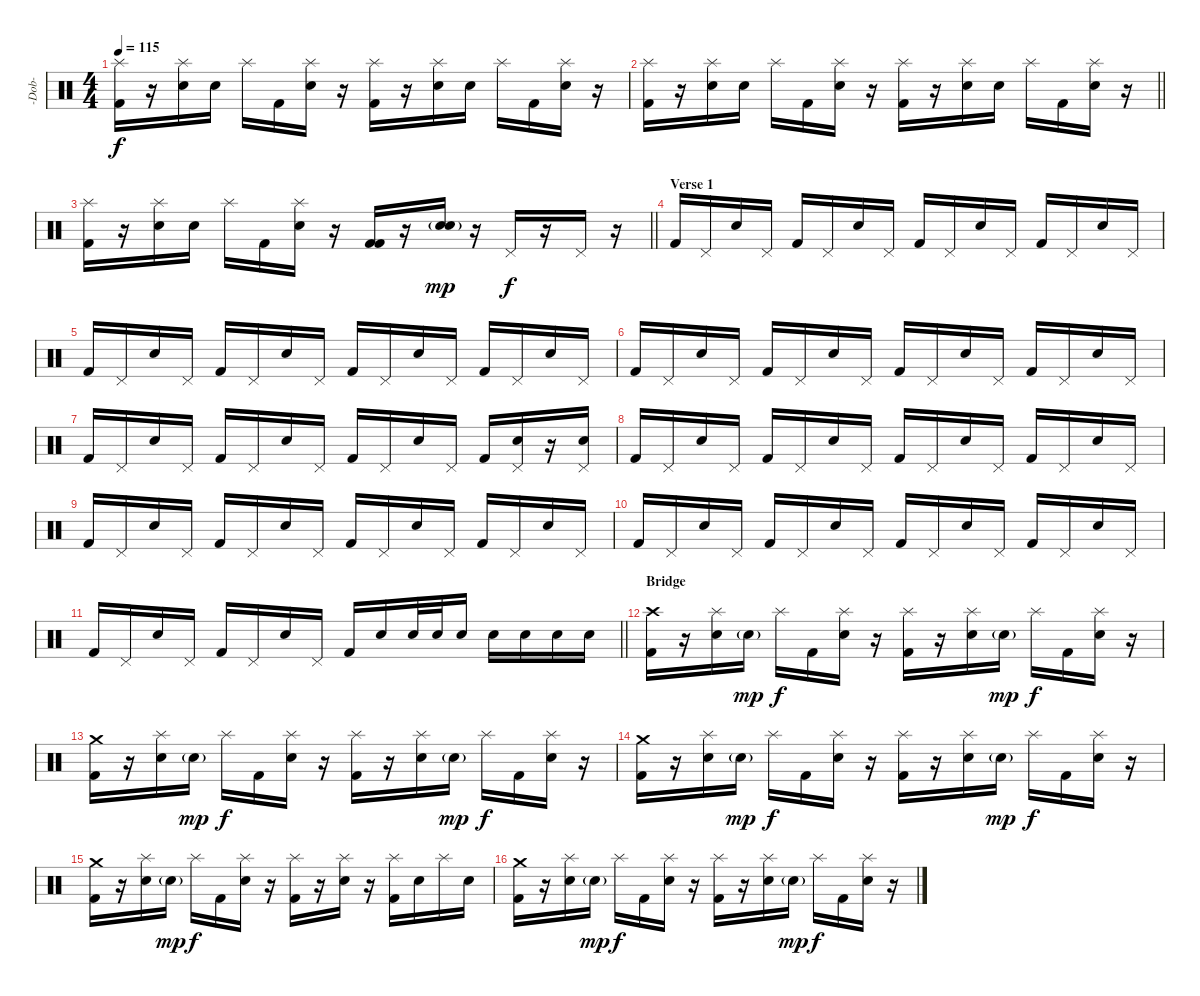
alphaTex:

\track ("-Dob-" "-Dob-") {instrument percussion}
\staff {score}
\articulation defaults
\ts (4 4)
\tempo 115
\clef neutral
\ks c
("Splash (hit)" "Kick (hit) 2").16{dy f} r.16 ("Splash (hit)" "Snare (hit) 2").16 "Snare (hit) 2".16 "Splash (hit)".16 "Kick (hit) 2".16 ("Splash (hit)" "Snare (hit) 2").16 r.16 ("Splash (hit)" "Kick (hit) 2").16 r.16 ("Splash (hit)" "Snare (hit) 2").16 "Snare (hit) 2".16 "Splash (hit)".16 "Kick (hit) 2".16 ("Splash (hit)" "Snare (hit) 2").16 r.16 |
\barLineRight lightlight
("Splash (hit)" "Kick (hit) 2").16 r.16 ("Splash (hit)" "Snare (hit) 2").16 "Snare (hit) 2".16 "Splash (hit)".16 "Kick (hit) 2".16 ("Splash (hit)" "Snare (hit) 2").16 r.16 ("Splash (hit)" "Kick (hit) 2").16 r.16 ("Splash (hit)" "Snare (hit) 2").16 "Snare (hit) 2".16 "Splash (hit)".16 "Kick (hit) 2".16 ("Splash (hit)" "Snare (hit) 2").16 r.16 |
\barLineRight lightlight
("Splash (hit)" "Kick (hit) 2").16 r.16 ("Splash (hit)" "Snare (hit) 2").16 "Snare (hit) 2".16 "Splash (hit)".16 "Kick (hit) 2".16 ("Splash (hit)" "Snare (hit) 2").16 r.16 ("Kick (hit) 2" "Kick (hit) 2").16 r.16 ("Snare (hit) 2" "Snare (hit) 2"{g}).16{dy mp} r.16 "Pedal Hi-Hat (hit)".16{dy f} r.16 "Pedal Hi-Hat (hit)".16 r.16 |
\section ("" "Verse 1")
"Kick (hit) 2".16 "Pedal Hi-Hat (hit)".16 "Snare (hit) 2".16 "Pedal Hi-Hat (hit)".16 "Kick (hit) 2".16 "Pedal Hi-Hat (hit)".16 "Snare (hit) 2".16 "Pedal Hi-Hat (hit)".16 "Kick (hit) 2".16 "Pedal Hi-Hat (hit)".16 "Snare (hit) 2".16 "Pedal Hi-Hat (hit)".16 "Kick (hit) 2".16 "Pedal Hi-Hat (hit)".16 "Snare (hit) 2".16 "Pedal Hi-Hat (hit)".16 |
"Kick (hit) 2".16 "Pedal Hi-Hat (hit)".16 "Snare (hit) 2".16 "Pedal Hi-Hat (hit)".16 "Kick (hit) 2".16 "Pedal Hi-Hat (hit)".16 "Snare (hit) 2".16 "Pedal Hi-Hat (hit)".16 "Kick (hit) 2".16 "Pedal Hi-Hat (hit)".16 "Snare (hit) 2".16 "Pedal Hi-Hat (hit)".16 "Kick (hit) 2".16 "Pedal Hi-Hat (hit)".16 "Snare (hit) 2".16 "Pedal Hi-Hat (hit)".16 |
"Kick (hit) 2".16 "Pedal Hi-Hat (hit)".16 "Snare (hit) 2".16 "Pedal Hi-Hat (hit)".16 "Kick (hit) 2".16 "Pedal Hi-Hat (hit)".16 "Snare (hit) 2".16 "Pedal Hi-Hat (hit)".16 "Kick (hit) 2".16 "Pedal Hi-Hat (hit)".16 "Snare (hit) 2".16 "Pedal Hi-Hat (hit)".16 "Kick (hit) 2".16 "Pedal Hi-Hat (hit)".16 "Snare (hit) 2".16 "Pedal Hi-Hat (hit)".16 |
"Kick (hit) 2".16 "Pedal Hi-Hat (hit)".16 "Snare (hit) 2".16 "Pedal Hi-Hat (hit)".16 "Kick (hit) 2".16 "Pedal Hi-Hat (hit)".16 "Snare (hit) 2".16 "Pedal Hi-Hat (hit)".16 "Kick (hit) 2".16 "Pedal Hi-Hat (hit)".16 "Snare (hit) 2".16 "Pedal Hi-Hat (hit)".16 "Kick (hit) 2".16 ("Pedal Hi-Hat (hit)" "Snare (hit) 2").16 r.16 ("Pedal Hi-Hat (hit)" "Snare (hit) 2").16 |
"Kick (hit) 2".16 "Pedal Hi-Hat (hit)".16 "Snare (hit) 2".16 "Pedal Hi-Hat (hit)".16 "Kick (hit) 2".16 "Pedal Hi-Hat (hit)".16 "Snare (hit) 2".16 "Pedal Hi-Hat (hit)".16 "Kick (hit) 2".16 "Pedal Hi-Hat (hit)".16 "Snare (hit) 2".16 "Pedal Hi-Hat (hit)".16 "Kick (hit) 2".16 "Pedal Hi-Hat (hit)".16 "Snare (hit) 2".16 "Pedal Hi-Hat (hit)".16 |
"Kick (hit) 2".16 "Pedal Hi-Hat (hit)".16 "Snare (hit) 2".16 "Pedal Hi-Hat (hit)".16 "Kick (hit) 2".16 "Pedal Hi-Hat (hit)".16 "Snare (hit) 2".16 "Pedal Hi-Hat (hit)".16 "Kick (hit) 2".16 "Pedal Hi-Hat (hit)".16 "Snare (hit) 2".16 "Pedal Hi-Hat (hit)".16 "Kick (hit) 2".16 "Pedal Hi-Hat (hit)".16 "Snare (hit) 2".16 "Pedal Hi-Hat (hit)".16 |
"Kick (hit) 2".16 "Pedal Hi-Hat (hit)".16 "Snare (hit) 2".16 "Pedal Hi-Hat (hit)".16 "Kick (hit) 2".16 "Pedal Hi-Hat (hit)".16 "Snare (hit) 2".16 "Pedal Hi-Hat (hit)".16 "Kick (hit) 2".16 "Pedal Hi-Hat (hit)".16 "Snare (hit) 2".16 "Pedal Hi-Hat (hit)".16 "Kick (hit) 2".16 "Pedal Hi-Hat (hit)".16 "Snare (hit) 2".16 "Pedal Hi-Hat (hit)".16 |
\barLineRight lightlight "Kick (hit) 2".16 "Pedal Hi-Hat (hit)".16 "Snare (hit) 2".16 "Pedal Hi-Hat (hit)".16 "Kick (hit) 2".16 "Pedal Hi-Hat (hit)".16 "Snare (hit) 2".16 "Pedal Hi-Hat (hit)".16 "Kick (hit) 2".16 "Snare (hit) 2".16 "Snare (hit) 2".32 "Snare (hit) 2".32 "Snare (hit) 2".16 "Snare (hit) 2".16 "Snare (hit) 2".16 "Snare (hit) 2".16 "Snare (hit) 2".16
|
\section ("" "Bridge")
("Crash high (hit)" "Kick (hit) 2").16 r.16 ("Splash (hit)" "Snare (hit) 2").16 "Snare (hit) 2"{g}.16{dy mp} "Splash (hit)".16{dy f} "Kick (hit) 2".16 ("Splash (hit)" "Snare (hit) 2").16 r.16 ("Splash (hit)" "Kick (hit) 2").16 r.16 ("Splash (hit)" "Snare (hit) 2").16 "Snare (hit) 2"{g}.16{dy mp} "Splash (hit)".16{dy f} "Kick (hit) 2".16 ("Splash (hit)" "Snare (hit) 2").16 r.16 |
("Crash medium (hit)" "Kick (hit) 2").16 r.16 ("Splash (hit)" "Snare (hit) 2").16 "Snare (hit) 2"{g}.16{dy mp} "Splash (hit)".16{dy f} "Kick (hit) 2".16 ("Splash (hit)" "Snare (hit) 2").16 r.16 ("Splash (hit)" "Kick (hit) 2").16 r.16 ("Splash (hit)" "Snare (hit) 2").16 "Snare (hit) 2"{g}.16{dy mp} "Splash (hit)".16{dy f} "Kick (hit) 2".16 ("Splash (hit)" "Snare (hit) 2").16 r.16 |
("Crash medium (hit)" "Kick (hit) 2").16 r.16 ("Splash (hit)" "Snare (hit) 2").16 "Snare (hit) 2"{g}.16{dy mp} "Splash (hit)".16{dy f} "Kick (hit) 2".16 ("Splash (hit)" "Snare (hit) 2").16 r.16 ("Splash (hit)" "Kick (hit) 2").16 r.16 ("Splash (hit)" "Snare (hit) 2").16 "Snare (hit) 2"{g}.16{dy mp} "Splash (hit)".16{dy f} "Kick (hit) 2".16 ("Splash (hit)" "Snare (hit) 2").16 r.16 |
("Crash medium (hit)" "Kick (hit) 2").16 r.16 ("Splash (hit)" "Snare (hit) 2").16 "Snare (hit) 2"{g}.16{dy mp} "Splash (hit)".16{dy f} "Kick (hit) 2".16 ("Splash (hit)" "Snare (hit) 2").16 r.16 ("Splash (hit)" "Kick (hit) 2").16 r.16 ("Splash (hit)" "Snare (hit) 2").16 r.16 ("Splash (hit)" "Kick (hit) 2").16 "Snare (hit) 2".16 "Splash (hit)".16 "Snare (hit) 2".16 |
("Crash medium (hit)" "Kick (hit) 2").16 r.16 ("Splash (hit)" "Snare (hit) 2").16 "Snare (hit) 2"{g}.16{dy mp} "Splash (hit)".16{dy f} "Kick (hit) 2".16 ("Splash (hit)" "Snare (hit) 2").16 r.16 ("Splash (hit)" "Kick (hit) 2").16 r.16 ("Splash (hit)" "Snare (hit) 2").16 "Snare (hit) 2"{g}.16{dy mp} "Splash (hit)".16{dy f} "Kick (hit) 2".16 ("Splash (hit)" "Snare (hit) 2").16 r.16
